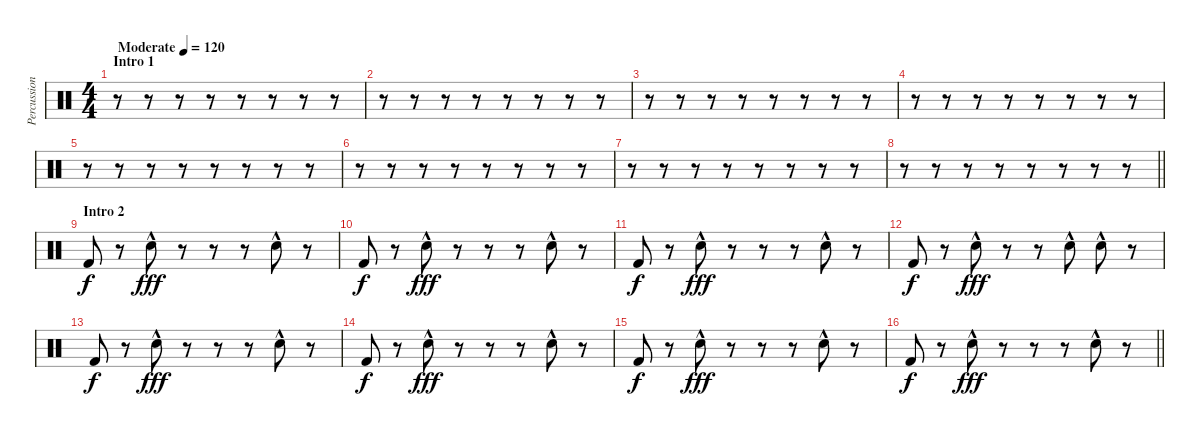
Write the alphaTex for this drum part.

\track ("Percussion" "Percussion") {instrument percussion}
\staff {score}
\articulation defaults
\ts (4 4)
\section ("" "Intro 1")
\tempo (120 "Moderate")
\tempo 147
\tempo (120 "Moderate")
\clef neutral
\ks c
r.8{dy f} r.8 r.8 r.8 r.8 r.8 r.8 r.8 |
r.8 r.8 r.8 r.8 r.8 r.8 r.8 r.8 |
r.8 r.8 r.8 r.8 r.8 r.8 r.8 r.8 |
r.8 r.8 r.8 r.8 r.8 r.8 r.8 r.8 |
r.8 r.8 r.8 r.8 r.8 r.8 r.8 r.8 |
r.8 r.8 r.8 r.8 r.8 r.8 r.8 r.8 |
r.8 r.8 r.8 r.8 r.8 r.8 r.8 r.8 |
\barLineRight lightlight
r.8 r.8 r.8 r.8 r.8 r.8 r.8 r.8 |
\section ("" "Intro 2")
"Kick (hit) 2".8 r.8 "Snare (hit) 2"{hac}.8{dy fff} r.8 r.8 r.8 "Snare (hit) 2"{hac}.8 r.8 |
"Kick (hit) 2".8{dy f} r.8 "Snare (hit) 2"{hac}.8{dy fff} r.8 r.8 r.8 "Snare (hit) 2"{hac}.8 r.8 |
"Kick (hit) 2".8{dy f} r.8 "Snare (hit) 2"{hac}.8{dy fff} r.8 r.8 r.8 "Snare (hit) 2"{hac}.8 r.8 |
"Kick (hit) 2".8{dy f} r.8 "Snare (hit) 2"{hac}.8{dy fff} r.8 r.8 "Snare (hit) 2"{hac}.8 "Snare (hit) 2"{hac}.8 r.8 |
"Kick (hit) 2".8{dy f} r.8 "Snare (hit) 2"{hac}.8{dy fff} r.8 r.8 r.8 "Snare (hit) 2"{hac}.8 r.8 |
"Kick (hit) 2".8{dy f} r.8 "Snare (hit) 2"{hac}.8{dy fff} r.8 r.8 r.8 "Snare (hit) 2"{hac}.8 r.8 |
"Kick (hit) 2".8{dy f} r.8 "Snare (hit) 2"{hac}.8{dy fff} r.8 r.8 r.8 "Snare (hit) 2"{hac}.8 r.8 |
\barLineRight lightlight "Kick (hit) 2".8{dy f}
r.8 "Snare (hit) 2"{hac}.8{dy fff} r.8 r.8 r.8 "Snare (hit) 2"{hac}.8 r.8
